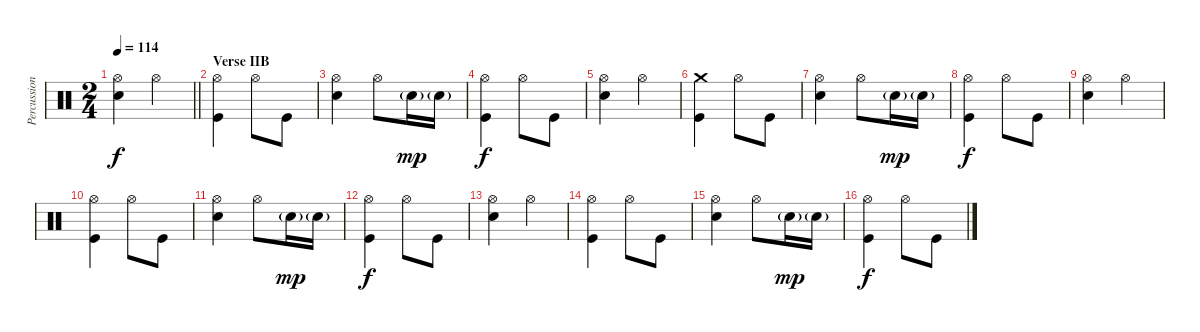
\track ("Percussion" "Percussion") {instrument percussion}
\staff {score}
\articulation defaults
\ts (2 4)
\tempo 114
\clef neutral
\barLineRight lightlight
\ks c
("Hi-Hat (open)" "Electric Snare (hit)").4{dy f} "Hi-Hat (open)".4 |
\section ("" "Verse IIB")
("Hi-Hat (open)" "Kick (hit)").4 "Hi-Hat (open)".8 "Kick (hit)".8 |
("Hi-Hat (open)" "Electric Snare (hit)").4 "Hi-Hat (open)".8 "Electric Snare (hit)"{g}.16{dy mp} "Electric Snare (hit)"{g}.16 |
("Hi-Hat (open)" "Kick (hit)").4{dy f} "Hi-Hat (open)".8 "Kick (hit)".8 |
("Hi-Hat (open)" "Electric Snare (hit)").4 "Hi-Hat (open)".4 |
("Crash medium (hit)" "Kick (hit)").4 "Hi-Hat (open)".8 "Kick (hit)".8 |
("Hi-Hat (open)" "Electric Snare (hit)").4 "Hi-Hat (open)".8 "Electric Snare (hit)"{g}.16{dy mp} "Electric Snare (hit)"{g}.16 |
("Hi-Hat (open)" "Kick (hit)").4{dy f} "Hi-Hat (open)".8 "Kick (hit)".8 |
("Hi-Hat (open)" "Electric Snare (hit)").4 "Hi-Hat (open)".4 |
("Hi-Hat (open)" "Kick (hit)").4 "Hi-Hat (open)".8 "Kick (hit)".8 |
("Hi-Hat (open)" "Electric Snare (hit)").4 "Hi-Hat (open)".8 "Electric Snare (hit)"{g}.16{dy mp} "Electric Snare (hit)"{g}.16 |
("Hi-Hat (open)" "Kick (hit)").4{dy f} "Hi-Hat (open)".8 "Kick (hit)".8 |
("Hi-Hat (open)" "Electric Snare (hit)").4 "Hi-Hat (open)".4 |
("Hi-Hat (open)" "Kick (hit)").4 "Hi-Hat (open)".8 "Kick (hit)".8 |
("Hi-Hat (open)" "Electric Snare (hit)").4 "Hi-Hat (open)".8 "Electric Snare (hit)"{g}.16{dy mp} "Electric Snare (hit)"{g}.16 |
("Hi-Hat (open)" "Kick (hit)").4{dy f} "Hi-Hat (open)".8 "Kick (hit)".8
